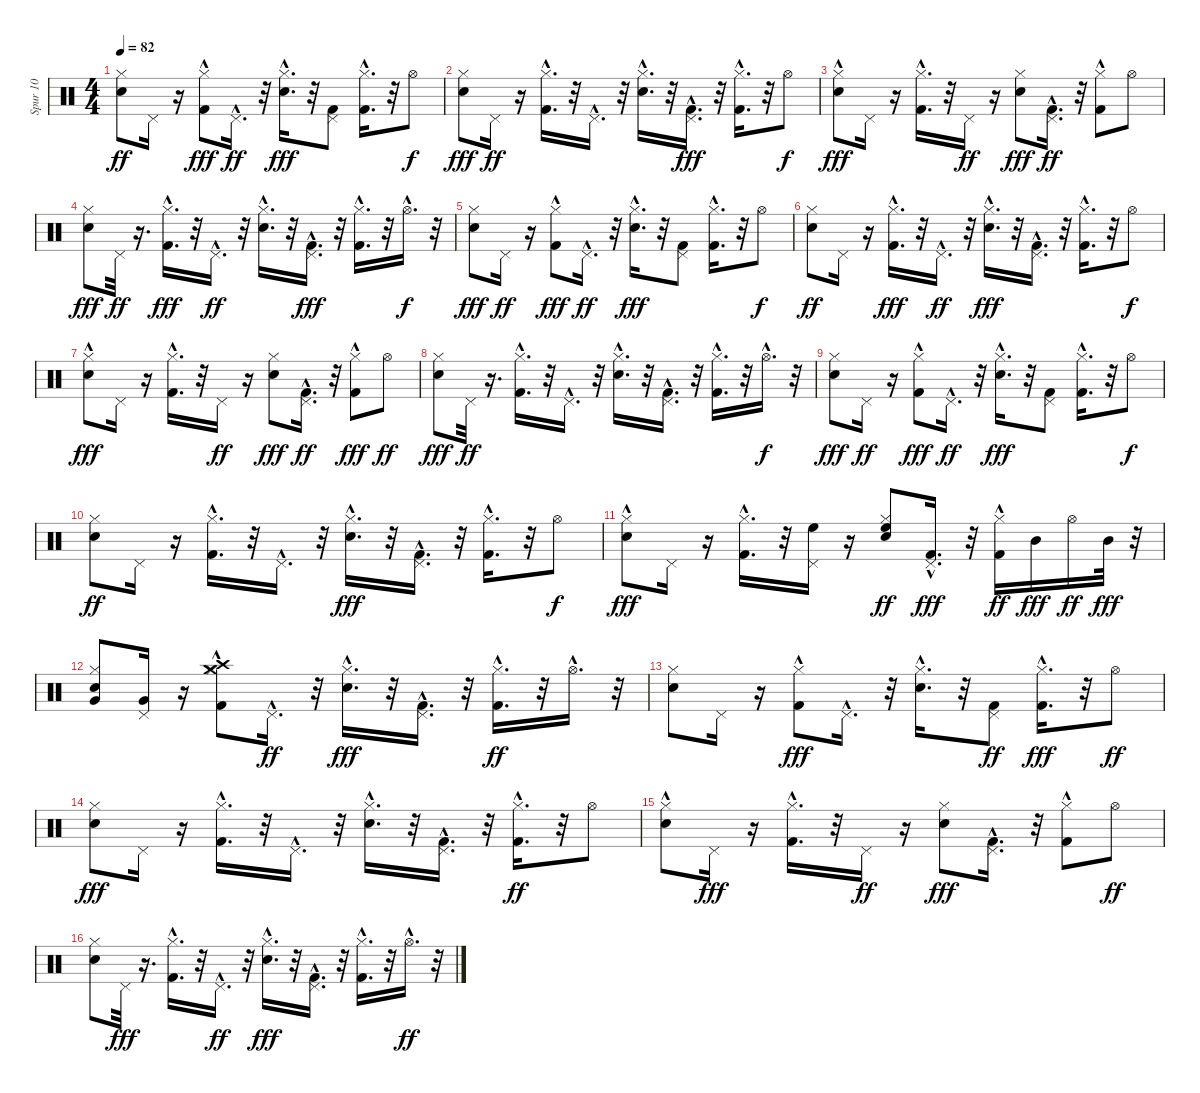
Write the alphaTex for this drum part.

\track ("Spur 10" "Spur 10") {instrument percussion}
\staff {score}
\articulation defaults
\ts (4 4)
\tempo 82
\clef neutral
\ks c
("Electric Snare (hit)" "Hi-Hat (closed)").8{dy ff} "Pedal Hi-Hat (hit)".16 r.16 ("Hi-Hat (closed)" "Kick (hit) 2"{hac}).8{dy fff} "Pedal Hi-Hat (hit)"{hac}.16{d dy ff} r.32 ("Hi-Hat (closed)"{hac} "Electric Snare (hit)").16{d dy fff} r.32 ("Pedal Hi-Hat (hit)" "Kick (hit) 2").8 ("Hi-Hat (closed)"{hac} "Kick (hit) 2"{hac}).16{d} r.32 "Hi-Hat (open)".8{dy f} |
("Hi-Hat (closed)" "Electric Snare (hit)").8{dy fff} "Pedal Hi-Hat (hit)".16{dy ff} r.16 ("Kick (hit) 2"{hac} "Hi-Hat (closed)"{hac}).16{d} r.32 "Pedal Hi-Hat (hit)"{hac}.16{d} r.32 ("Electric Snare (hit)" "Hi-Hat (closed)"{hac}).16{d} r.32 ("Kick (hit) 2" "Pedal Hi-Hat (hit)"{hac}).16{d dy fff} r.32 ("Hi-Hat (closed)"{hac} "Kick (hit) 2"{hac}).16{d} r.32 "Hi-Hat (open)".8{dy f} |
("Electric Snare (hit)"{hac} "Hi-Hat (closed)").8{dy fff} "Pedal Hi-Hat (hit)".16 r.16 ("Hi-Hat (closed)"{hac} "Kick (hit) 2"{hac}).16{d} r.32 "Pedal Hi-Hat (hit)".16{dy ff} r.16 ("Hi-Hat (closed)" "Electric Snare (hit)").8{dy fff} ("Kick (hit) 2" "Pedal Hi-Hat (hit)"{hac}).16{d dy ff} r.32 ("Kick (hit) 2"{hac} "Hi-Hat (closed)").8 "Hi-Hat (open)".8 |
("Hi-Hat (closed)" "Electric Snare (hit)").8{dy fff} "Pedal Hi-Hat (hit)".32{dy ff} r.16{d} ("Hi-Hat (closed)"{hac} "Kick (hit) 2"{hac}).16{d dy fff} r.32 "Pedal Hi-Hat (hit)"{hac}.16{d dy ff} r.32 ("Electric Snare (hit)" "Hi-Hat (closed)"{hac}).16{d} r.32 ("Pedal Hi-Hat (hit)"{hac} "Kick (hit) 2").16{d dy fff} r.32 ("Hi-Hat (closed)"{hac} "Kick (hit) 2"{hac}).16{d} r.32 "Hi-Hat (open)"{hac}.16{d dy f} r.32 |
("Hi-Hat (closed)" "Electric Snare (hit)").8{dy fff} "Pedal Hi-Hat (hit)".16{dy ff} r.16 ("Kick (hit) 2"{hac} "Hi-Hat (closed)").8{dy fff} "Pedal Hi-Hat (hit)"{hac}.16{d dy ff} r.32 ("Hi-Hat (closed)"{hac} "Electric Snare (hit)").16{d dy fff} r.32 ("Kick (hit) 2" "Pedal Hi-Hat (hit)").8 ("Kick (hit) 2"{hac} "Hi-Hat (closed)"{hac}).16{d} r.32 "Hi-Hat (open)".8{dy f} |
("Electric Snare (hit)" "Hi-Hat (closed)").8{dy ff} "Pedal Hi-Hat (hit)".16 r.16 ("Hi-Hat (closed)"{hac} "Kick (hit) 2"{hac}).16{d dy fff} r.32 "Pedal Hi-Hat (hit)"{hac}.16{d dy ff} r.32 ("Hi-Hat (closed)"{hac} "Electric Snare (hit)").16{d dy fff} r.32 ("Pedal Hi-Hat (hit)"{hac} "Kick (hit) 2").16{d} r.32 ("Kick (hit) 2"{hac} "Hi-Hat (closed)"{hac}).16{d} r.32 "Hi-Hat (open)".8{dy f} |
("Electric Snare (hit)"{hac} "Hi-Hat (closed)").8{dy fff} "Pedal Hi-Hat (hit)".16 r.16 ("Hi-Hat (closed)"{hac} "Kick (hit) 2"{hac}).16{d} r.32 "Pedal Hi-Hat (hit)".16{dy ff} r.16 ("Hi-Hat (closed)" "Electric Snare (hit)").8{dy fff} ("Kick (hit) 2" "Pedal Hi-Hat (hit)"{hac}).16{d dy ff} r.32 ("Hi-Hat (closed)" "Kick (hit) 2"{hac}).8{dy fff} "Hi-Hat (open)".8{dy ff} |
("Hi-Hat (closed)" "Electric Snare (hit)").8{dy fff} "Pedal Hi-Hat (hit)".32{dy ff} r.16{d} ("Kick (hit) 2"{hac} "Hi-Hat (closed)"{hac}).16{d} r.32 "Pedal Hi-Hat (hit)"{hac}.16{d} r.32 ("Electric Snare (hit)" "Hi-Hat (closed)"{hac}).16{d} r.32 ("Kick (hit) 2" "Pedal Hi-Hat (hit)"{hac}).16{d} r.32 ("Kick (hit) 2"{hac} "Hi-Hat (closed)"{hac}).16{d} r.32 "Hi-Hat (open)"{hac}.16{d dy f} r.32 |
("Hi-Hat (closed)" "Electric Snare (hit)").8{dy fff} "Pedal Hi-Hat (hit)".16{dy ff} r.16 ("Hi-Hat (closed)" "Kick (hit) 2"{hac}).8{dy fff} "Pedal Hi-Hat (hit)"{hac}.16{d dy ff} r.32 ("Hi-Hat (closed)"{hac} "Electric Snare (hit)").16{d dy fff} r.32 ("Kick (hit) 2" "Pedal Hi-Hat (hit)").8 ("Kick (hit) 2"{hac} "Hi-Hat (closed)"{hac}).16{d} r.32 "Hi-Hat (open)".8{dy f} |
("Electric Snare (hit)" "Hi-Hat (closed)").8{dy ff} "Pedal Hi-Hat (hit)".16 r.16 ("Kick (hit) 2"{hac} "Hi-Hat (closed)"{hac}).16{d} r.32 "Pedal Hi-Hat (hit)"{hac}.16{d} r.32 ("Hi-Hat (closed)"{hac} "Electric Snare (hit)").16{d dy fff} r.32 ("Kick (hit) 2" "Pedal Hi-Hat (hit)"{hac}).16{d} r.32 ("Kick (hit) 2"{hac} "Hi-Hat (closed)"{hac}).16{d} r.32 "Hi-Hat (open)".8{dy f} |
("Electric Snare (hit)"{hac} "Hi-Hat (closed)").8{dy fff} "Pedal Hi-Hat (hit)".16 r.16 ("Hi-Hat (closed)"{hac} "Kick (hit) 2"{hac}).16{d} r.32 ("Pedal Hi-Hat (hit)" "High Floor Tom (hit)").16 r.16 ("High Floor Tom (hit)" "Electric Snare (hit)" "Hi-Hat (closed)").8{dy ff} ("Pedal Hi-Hat (hit)"{hac} "Kick (hit) 2").16{d dy fff} r.32 ("Kick (hit) 2"{hac} "Hi-Hat (closed)").16{dy ff} "Mid Tom (hit)".16{dy fff} "Hi-Hat (open)".16{dy ff} "Mid Tom (hit)".32{dy fff} r.32 |
("Hi-Hat (closed)" "Very Low Tom (hit)" "Electric Snare (hit)").8 ("Pedal Hi-Hat (hit)" "Very Low Tom (hit)").16 r.16 ("Hi-Hat (closed)"{hac} "Crash high (hit)" "Kick (hit) 2"{hac} "Crash medium (hit)").8 "Pedal Hi-Hat (hit)"{hac}.16{d dy ff} r.32 ("Electric Snare (hit)" "Hi-Hat (closed)"{hac}).16{d dy fff} r.32 ("Pedal Hi-Hat (hit)"{hac} "Kick (hit) 2").16{d} r.32 ("Kick (hit) 2"{hac} "Hi-Hat (closed)"{hac}).16{d dy ff} r.32 "Hi-Hat (open)"{hac}.16{d} r.32 |
("Electric Snare (hit)" "Hi-Hat (closed)").8 "Pedal Hi-Hat (hit)".16 r.16 ("Hi-Hat (closed)" "Kick (hit) 2"{hac}).8{dy fff} "Pedal Hi-Hat (hit)"{hac}.16{d} r.32 ("Electric Snare (hit)" "Hi-Hat (closed)"{hac}).16{d} r.32 ("Kick (hit) 2" "Pedal Hi-Hat (hit)").8{dy ff} ("Hi-Hat (closed)"{hac} "Kick (hit) 2"{hac}).16{d dy fff} r.32 "Hi-Hat (open)".8{dy ff} |
("Hi-Hat (closed)" "Electric Snare (hit)").8{dy fff} "Pedal Hi-Hat (hit)".16 r.16 ("Hi-Hat (closed)"{hac} "Kick (hit) 2"{hac}).16{d} r.32 "Pedal Hi-Hat (hit)"{hac}.16{d} r.32 ("Hi-Hat (closed)"{hac} "Electric Snare (hit)").16{d} r.32 ("Pedal Hi-Hat (hit)"{hac} "Kick (hit) 2").16{d} r.32 ("Kick (hit) 2"{hac} "Hi-Hat (closed)"{hac}).16{d dy ff} r.32 "Hi-Hat (open)".8 |
("Electric Snare (hit)"{hac} "Hi-Hat (closed)").8 "Pedal Hi-Hat (hit)".16{dy fff} r.16 ("Hi-Hat (closed)"{hac} "Kick (hit) 2"{hac}).16{d} r.32 "Pedal Hi-Hat (hit)".16{dy ff} r.16 ("Electric Snare (hit)" "Hi-Hat (closed)").8{dy fff} ("Kick (hit) 2" "Pedal Hi-Hat (hit)"{hac}).16{d} r.32 ("Hi-Hat (closed)" "Kick (hit) 2"{hac}).8 "Hi-Hat (open)".8{dy ff} |
("Electric Snare (hit)" "Hi-Hat (closed)").8 "Pedal Hi-Hat (hit)".32{dy fff} r.16{d} ("Kick (hit) 2"{hac} "Hi-Hat (closed)"{hac}).16{d} r.32 "Pedal Hi-Hat (hit)"{hac}.16{d dy ff} r.32 ("Electric Snare (hit)" "Hi-Hat (closed)"{hac}).16{d dy fff} r.32 ("Pedal Hi-Hat (hit)"{hac} "Kick (hit) 2").16{d} r.32 ("Hi-Hat (closed)"{hac} "Kick (hit) 2"{hac}).16{d} r.32 "Hi-Hat (open)"{hac}.16{d dy ff} r.32
